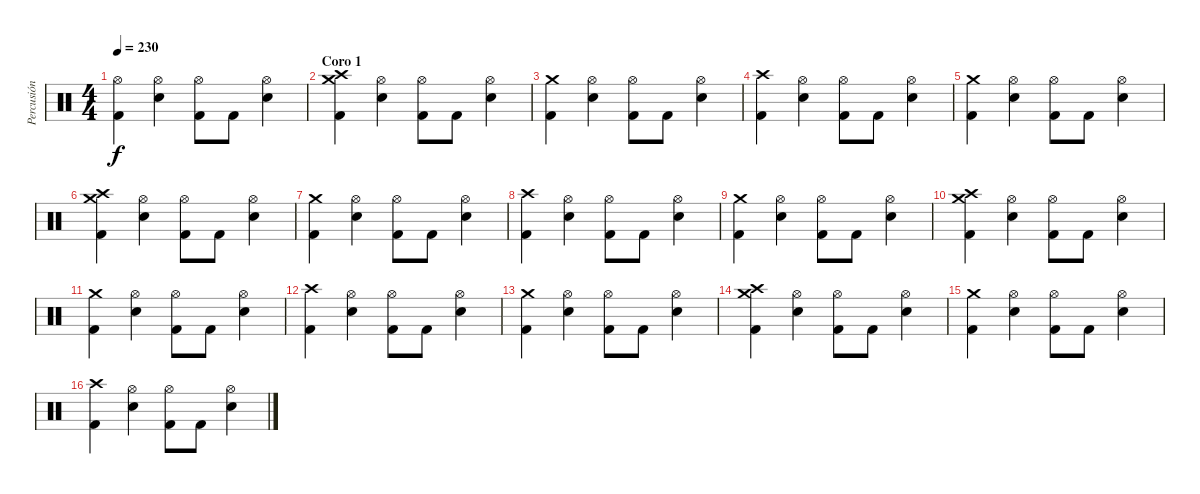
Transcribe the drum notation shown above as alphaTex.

\track ("Percusión" "Percusión") {instrument percussion}
\staff {score}
\articulation defaults
\ts (4 4)
\tempo 230
\clef neutral
\ks c
("Hi-Hat (open)" "Kick (hit) 2").4{dy f} ("Hi-Hat (open)" "Snare (hit) 2").4 ("Hi-Hat (open)" "Kick (hit) 2").8 "Kick (hit) 2".8 ("Hi-Hat (open)" "Snare (hit) 2").4 |
\section ("" "Coro 1")
("Crash medium (hit)" "Crash high (hit)" "Kick (hit) 2").4 ("Hi-Hat (open)" "Snare (hit) 2").4 ("Hi-Hat (open)" "Kick (hit) 2").8 "Kick (hit) 2".8 ("Hi-Hat (open)" "Snare (hit) 2").4 |
("Crash medium (hit)" "Kick (hit) 2").4 ("Hi-Hat (open)" "Snare (hit) 2").4 ("Hi-Hat (open)" "Kick (hit) 2").8 "Kick (hit) 2".8 ("Hi-Hat (open)" "Snare (hit) 2").4 |
("Crash high (hit)" "Kick (hit) 2").4 ("Hi-Hat (open)" "Snare (hit) 2").4 ("Hi-Hat (open)" "Kick (hit) 2").8 "Kick (hit) 2".8 ("Hi-Hat (open)" "Snare (hit) 2").4 |
("Crash medium (hit)" "Kick (hit) 2").4 ("Hi-Hat (open)" "Snare (hit) 2").4 ("Hi-Hat (open)" "Kick (hit) 2").8 "Kick (hit) 2".8 ("Hi-Hat (open)" "Snare (hit) 2").4 |
("Crash medium (hit)" "Crash high (hit)" "Kick (hit) 2").4 ("Hi-Hat (open)" "Snare (hit) 2").4 ("Hi-Hat (open)" "Kick (hit) 2").8 "Kick (hit) 2".8 ("Hi-Hat (open)" "Snare (hit) 2").4 |
("Crash medium (hit)" "Kick (hit) 2").4 ("Hi-Hat (open)" "Snare (hit) 2").4 ("Hi-Hat (open)" "Kick (hit) 2").8 "Kick (hit) 2".8 ("Hi-Hat (open)" "Snare (hit) 2").4 |
("Crash high (hit)" "Kick (hit) 2").4 ("Hi-Hat (open)" "Snare (hit) 2").4 ("Hi-Hat (open)" "Kick (hit) 2").8 "Kick (hit) 2".8 ("Hi-Hat (open)" "Snare (hit) 2").4 |
("Crash medium (hit)" "Kick (hit) 2").4 ("Hi-Hat (open)" "Snare (hit) 2").4 ("Hi-Hat (open)" "Kick (hit) 2").8 "Kick (hit) 2".8 ("Hi-Hat (open)" "Snare (hit) 2").4 |
("Crash medium (hit)" "Crash high (hit)" "Kick (hit) 2").4 ("Hi-Hat (open)" "Snare (hit) 2").4 ("Hi-Hat (open)" "Kick (hit) 2").8 "Kick (hit) 2".8 ("Hi-Hat (open)" "Snare (hit) 2").4 |
("Crash medium (hit)" "Kick (hit) 2").4 ("Hi-Hat (open)" "Snare (hit) 2").4 ("Hi-Hat (open)" "Kick (hit) 2").8 "Kick (hit) 2".8 ("Hi-Hat (open)" "Snare (hit) 2").4 |
("Crash high (hit)" "Kick (hit) 2").4 ("Hi-Hat (open)" "Snare (hit) 2").4 ("Hi-Hat (open)" "Kick (hit) 2").8 "Kick (hit) 2".8 ("Hi-Hat (open)" "Snare (hit) 2").4 |
("Crash medium (hit)" "Kick (hit) 2").4 ("Hi-Hat (open)" "Snare (hit) 2").4 ("Hi-Hat (open)" "Kick (hit) 2").8 "Kick (hit) 2".8 ("Hi-Hat (open)" "Snare (hit) 2").4 |
("Crash medium (hit)" "Crash high (hit)" "Kick (hit) 2").4 ("Hi-Hat (open)" "Snare (hit) 2").4 ("Hi-Hat (open)" "Kick (hit) 2").8 "Kick (hit) 2".8 ("Hi-Hat (open)" "Snare (hit) 2").4 |
("Crash medium (hit)" "Kick (hit) 2").4 ("Hi-Hat (open)" "Snare (hit) 2").4 ("Hi-Hat (open)" "Kick (hit) 2").8 "Kick (hit) 2".8 ("Hi-Hat (open)" "Snare (hit) 2").4 |
("Crash high (hit)" "Kick (hit) 2").4 ("Hi-Hat (open)" "Snare (hit) 2").4 ("Hi-Hat (open)" "Kick (hit) 2").8 "Kick (hit) 2".8 ("Hi-Hat (open)" "Snare (hit) 2").4
